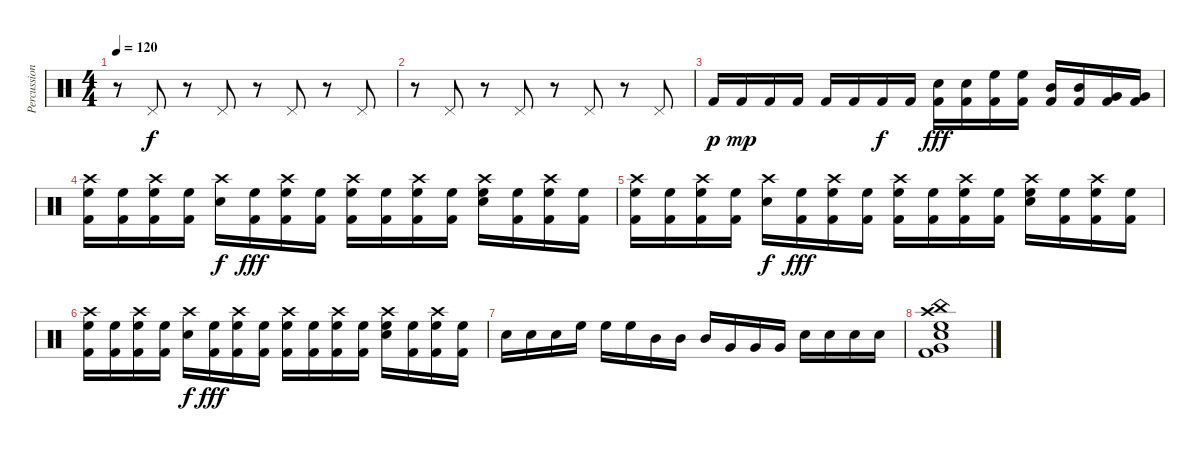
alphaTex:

\track ("Percussions" "Percussion") {instrument percussion}
\staff {score}
\articulation defaults
\ts (4 4)
\tempo 120
\clef neutral
\ks c
r.8{dy fff} "Pedal Hi-Hat (hit)".8{dy f} r.8 "Pedal Hi-Hat (hit)".8 r.8 "Pedal Hi-Hat (hit)".8 r.8 "Pedal Hi-Hat (hit)".8 |
r.8 "Pedal Hi-Hat (hit)".8 r.8 "Pedal Hi-Hat (hit)".8 r.8 "Pedal Hi-Hat (hit)".8 r.8 "Pedal Hi-Hat (hit)".8 |
"Kick (hit) 2".16{dy p} "Kick (hit) 2".16{dy mp} "Kick (hit) 2".16 "Kick (hit) 2".16 "Kick (hit) 2".16 "Kick (hit) 2".16 "Kick (hit) 2".16{dy f} "Kick (hit) 2".16 ("Kick (hit) 2" "Snare (hit) 2").16{dy fff} ("Kick (hit) 2" "Snare (hit) 2").16 ("Kick (hit) 2" "High Floor Tom (hit)").16 ("Kick (hit) 2" "High Floor Tom (hit)").16 ("Kick (hit) 2" "Mid Tom (hit)").16 ("Kick (hit) 2" "Mid Tom (hit)").16 ("Kick (hit) 2" "Very Low Tom (hit)").16 ("Kick (hit) 2" "Very Low Tom (hit)").16 |
("Crash high (hit)" "Kick (hit) 2" "High Floor Tom (hit)").16 ("Kick (hit) 2" "High Floor Tom (hit)").16 ("Crash high (hit)" "Kick (hit) 2" "High Floor Tom (hit)").16 ("Kick (hit) 2" "High Floor Tom (hit)").16 ("Crash high (hit)" "Snare (hit) 2").16{dy f} ("Kick (hit) 2" "High Floor Tom (hit)").16{dy fff} ("Crash high (hit)" "Kick (hit) 2" "High Floor Tom (hit)").16 ("Kick (hit) 2" "High Floor Tom (hit)").16 ("Crash high (hit)" "Kick (hit) 2" "High Floor Tom (hit)").16 ("Kick (hit) 2" "High Floor Tom (hit)").16 ("Crash high (hit)" "Kick (hit) 2" "High Floor Tom (hit)").16 ("Kick (hit) 2" "High Floor Tom (hit)").16 ("Crash high (hit)" "Snare (hit) 2" "High Floor Tom (hit)").16 ("Kick (hit) 2" "High Floor Tom (hit)").16 ("Crash high (hit)" "Kick (hit) 2" "High Floor Tom (hit)").16 ("Kick (hit) 2" "High Floor Tom (hit)").16 |
("Crash high (hit)" "Kick (hit) 2" "High Floor Tom (hit)").16 ("Kick (hit) 2" "High Floor Tom (hit)").16 ("Crash high (hit)" "Kick (hit) 2" "High Floor Tom (hit)").16 ("Kick (hit) 2" "High Floor Tom (hit)").16 ("Crash high (hit)" "Snare (hit) 2").16{dy f} ("Kick (hit) 2" "High Floor Tom (hit)").16{dy fff} ("Crash high (hit)" "Kick (hit) 2" "High Floor Tom (hit)").16 ("Kick (hit) 2" "High Floor Tom (hit)").16 ("Crash high (hit)" "Kick (hit) 2" "High Floor Tom (hit)").16 ("Kick (hit) 2" "High Floor Tom (hit)").16 ("Crash high (hit)" "Kick (hit) 2" "High Floor Tom (hit)").16 ("Kick (hit) 2" "High Floor Tom (hit)").16 ("Crash high (hit)" "Snare (hit) 2" "High Floor Tom (hit)").16 ("Kick (hit) 2" "High Floor Tom (hit)").16 ("Crash high (hit)" "Kick (hit) 2" "High Floor Tom (hit)").16 ("Kick (hit) 2" "High Floor Tom (hit)").16 |
("Crash high (hit)" "Kick (hit) 2" "High Floor Tom (hit)").16 ("Kick (hit) 2" "High Floor Tom (hit)").16 ("Crash high (hit)" "Kick (hit) 2" "High Floor Tom (hit)").16 ("Kick (hit) 2" "High Floor Tom (hit)").16 ("Crash high (hit)" "Snare (hit) 2").16{dy f} ("Kick (hit) 2" "High Floor Tom (hit)").16{dy fff} ("Crash high (hit)" "Kick (hit) 2" "High Floor Tom (hit)").16 ("Kick (hit) 2" "High Floor Tom (hit)").16 ("Crash high (hit)" "Kick (hit) 2" "High Floor Tom (hit)").16 ("Kick (hit) 2" "High Floor Tom (hit)").16 ("Crash high (hit)" "Kick (hit) 2" "High Floor Tom (hit)").16 ("Kick (hit) 2" "High Floor Tom (hit)").16 ("Crash high (hit)" "Snare (hit) 2" "High Floor Tom (hit)").16 ("Kick (hit) 2" "High Floor Tom (hit)").16 ("Crash high (hit)" "Kick (hit) 2" "High Floor Tom (hit)").16 ("Kick (hit) 2" "High Floor Tom (hit)").16 |
"Snare (hit) 2".16 "Snare (hit) 2".16 "Snare (hit) 2".16 "High Floor Tom (hit)".16 "High Floor Tom (hit)".16 "High Floor Tom (hit)".16 "Mid Tom (hit)".16 "Mid Tom (hit)".16 "Mid Tom (hit)".16 "Very Low Tom (hit)".16 "Very Low Tom (hit)".16 "Very Low Tom (hit)".16 "Snare (hit) 2".16 "Snare (hit) 2".16 "Snare (hit) 2".16 "Snare (hit) 2".16 |
("Crash high (hit)" "China (hit)" "Snare (hit) 2" "High Floor Tom (hit)" "Kick (hit) 2" "Very Low Tom (hit)").1
